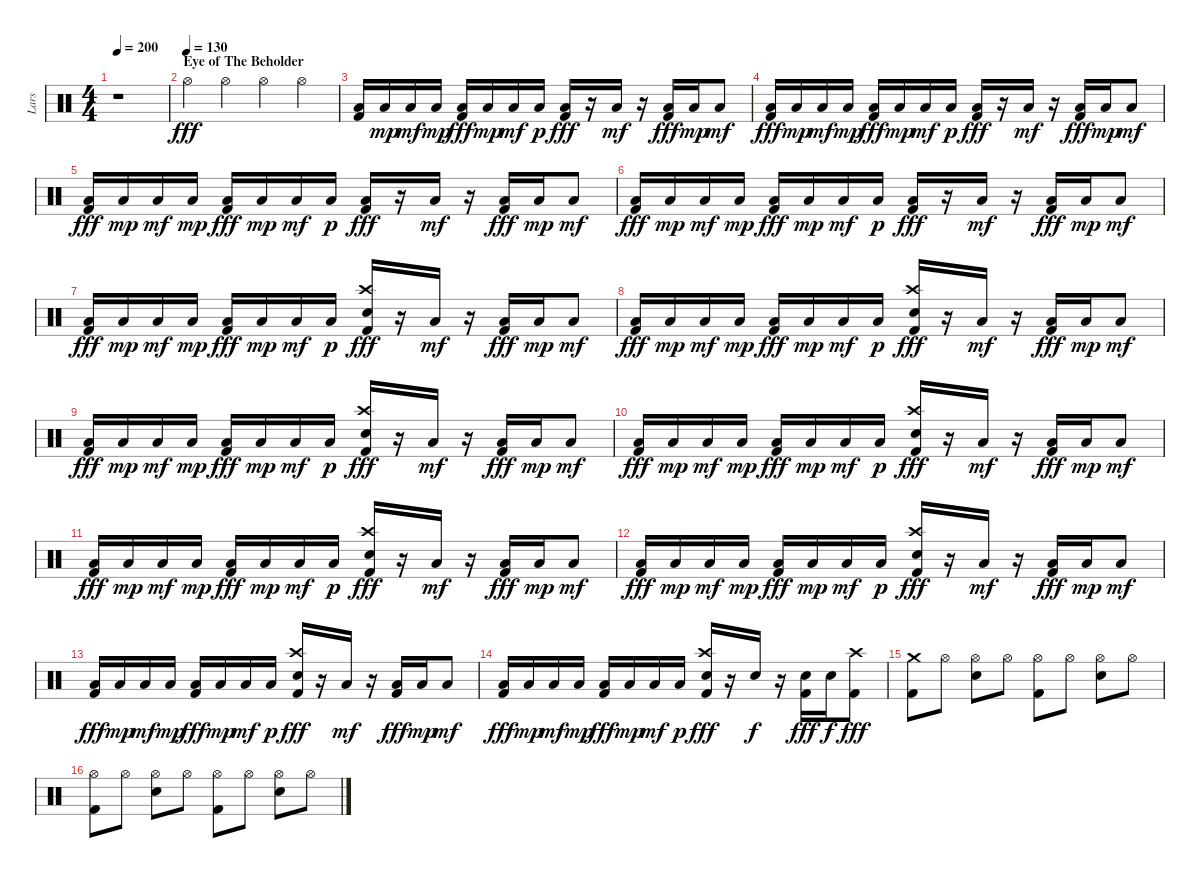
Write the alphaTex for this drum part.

\track ("Lars" "Lars") {instrument percussion}
\staff {score}
\articulation defaults
\ts (4 4)
\tempo 200
\clef neutral
\ks c
r.1{dy fff} |
\section ("" "Eye of The Beholder")
\tempo (130)
"Hi-Hat (open)".4 "Hi-Hat (open)".4 "Hi-Hat (open)".4 "Hi-Hat (open)".4 |
("Low Floor Tom (hit)" "Kick (hit) 2").16 "Low Floor Tom (hit)".16{dy mp} "Low Floor Tom (hit)".16{dy mf} "Low Floor Tom (hit)".16{dy mp} ("Low Floor Tom (hit)" "Kick (hit) 2").16{dy fff} "Low Floor Tom (hit)".16{dy mp} "Low Floor Tom (hit)".16{dy mf} "Low Floor Tom (hit)".16{dy p} ("Low Floor Tom (hit)" "Kick (hit) 2").16{dy fff} r.16 "Low Floor Tom (hit)".16{dy mf} r.16 ("Low Floor Tom (hit)" "Kick (hit) 2").16{dy fff} "Low Floor Tom (hit)".16{dy mp} "Low Floor Tom (hit)".8{dy mf} |
("Low Floor Tom (hit)" "Kick (hit) 2").16{dy fff} "Low Floor Tom (hit)".16{dy mp} "Low Floor Tom (hit)".16{dy mf} "Low Floor Tom (hit)".16{dy mp} ("Low Floor Tom (hit)" "Kick (hit) 2").16{dy fff} "Low Floor Tom (hit)".16{dy mp} "Low Floor Tom (hit)".16{dy mf} "Low Floor Tom (hit)".16{dy p} ("Low Floor Tom (hit)" "Kick (hit) 2").16{dy fff} r.16 "Low Floor Tom (hit)".16{dy mf} r.16 ("Low Floor Tom (hit)" "Kick (hit) 2").16{dy fff} "Low Floor Tom (hit)".16{dy mp} "Low Floor Tom (hit)".8{dy mf} |
("Low Floor Tom (hit)" "Kick (hit) 2").16{dy fff} "Low Floor Tom (hit)".16{dy mp} "Low Floor Tom (hit)".16{dy mf} "Low Floor Tom (hit)".16{dy mp} ("Low Floor Tom (hit)" "Kick (hit) 2").16{dy fff} "Low Floor Tom (hit)".16{dy mp} "Low Floor Tom (hit)".16{dy mf} "Low Floor Tom (hit)".16{dy p} ("Low Floor Tom (hit)" "Kick (hit) 2").16{dy fff} r.16 "Low Floor Tom (hit)".16{dy mf} r.16 ("Low Floor Tom (hit)" "Kick (hit) 2").16{dy fff} "Low Floor Tom (hit)".16{dy mp} "Low Floor Tom (hit)".8{dy mf} |
("Low Floor Tom (hit)" "Kick (hit) 2").16{dy fff} "Low Floor Tom (hit)".16{dy mp} "Low Floor Tom (hit)".16{dy mf} "Low Floor Tom (hit)".16{dy mp} ("Low Floor Tom (hit)" "Kick (hit) 2").16{dy fff} "Low Floor Tom (hit)".16{dy mp} "Low Floor Tom (hit)".16{dy mf} "Low Floor Tom (hit)".16{dy p} ("Low Floor Tom (hit)" "Kick (hit) 2").16{dy fff} r.16 "Low Floor Tom (hit)".16{dy mf} r.16 ("Low Floor Tom (hit)" "Kick (hit) 2").16{dy fff} "Low Floor Tom (hit)".16{dy mp} "Low Floor Tom (hit)".8{dy mf} |
("Low Floor Tom (hit)" "Kick (hit) 2").16{dy fff} "Low Floor Tom (hit)".16{dy mp} "Low Floor Tom (hit)".16{dy mf} "Low Floor Tom (hit)".16{dy mp} ("Low Floor Tom (hit)" "Kick (hit) 2").16{dy fff} "Low Floor Tom (hit)".16{dy mp} "Low Floor Tom (hit)".16{dy mf} "Low Floor Tom (hit)".16{dy p} ("Crash high (hit)" "Snare (hit) 2" "Kick (hit) 2").16{dy fff} r.16 "Low Floor Tom (hit)".16{dy mf} r.16 ("Low Floor Tom (hit)" "Kick (hit) 2").16{dy fff} "Low Floor Tom (hit)".16{dy mp} "Low Floor Tom (hit)".8{dy mf} |
("Low Floor Tom (hit)" "Kick (hit) 2").16{dy fff} "Low Floor Tom (hit)".16{dy mp} "Low Floor Tom (hit)".16{dy mf} "Low Floor Tom (hit)".16{dy mp} ("Low Floor Tom (hit)" "Kick (hit) 2").16{dy fff} "Low Floor Tom (hit)".16{dy mp} "Low Floor Tom (hit)".16{dy mf} "Low Floor Tom (hit)".16{dy p} ("Crash high (hit)" "Snare (hit) 2" "Kick (hit) 2").16{dy fff} r.16 "Low Floor Tom (hit)".16{dy mf} r.16 ("Low Floor Tom (hit)" "Kick (hit) 2").16{dy fff} "Low Floor Tom (hit)".16{dy mp} "Low Floor Tom (hit)".8{dy mf} |
("Low Floor Tom (hit)" "Kick (hit) 2").16{dy fff} "Low Floor Tom (hit)".16{dy mp} "Low Floor Tom (hit)".16{dy mf} "Low Floor Tom (hit)".16{dy mp} ("Low Floor Tom (hit)" "Kick (hit) 2").16{dy fff} "Low Floor Tom (hit)".16{dy mp} "Low Floor Tom (hit)".16{dy mf} "Low Floor Tom (hit)".16{dy p} ("Crash high (hit)" "Snare (hit) 2" "Kick (hit) 2").16{dy fff} r.16 "Low Floor Tom (hit)".16{dy mf} r.16 ("Low Floor Tom (hit)" "Kick (hit) 2").16{dy fff} "Low Floor Tom (hit)".16{dy mp} "Low Floor Tom (hit)".8{dy mf} |
("Low Floor Tom (hit)" "Kick (hit) 2").16{dy fff} "Low Floor Tom (hit)".16{dy mp} "Low Floor Tom (hit)".16{dy mf} "Low Floor Tom (hit)".16{dy mp} ("Low Floor Tom (hit)" "Kick (hit) 2").16{dy fff} "Low Floor Tom (hit)".16{dy mp} "Low Floor Tom (hit)".16{dy mf} "Low Floor Tom (hit)".16{dy p} ("Crash high (hit)" "Snare (hit) 2" "Kick (hit) 2").16{dy fff} r.16 "Low Floor Tom (hit)".16{dy mf} r.16 ("Low Floor Tom (hit)" "Kick (hit) 2").16{dy fff} "Low Floor Tom (hit)".16{dy mp} "Low Floor Tom (hit)".8{dy mf} |
("Low Floor Tom (hit)" "Kick (hit) 2").16{dy fff} "Low Floor Tom (hit)".16{dy mp} "Low Floor Tom (hit)".16{dy mf} "Low Floor Tom (hit)".16{dy mp} ("Low Floor Tom (hit)" "Kick (hit) 2").16{dy fff} "Low Floor Tom (hit)".16{dy mp} "Low Floor Tom (hit)".16{dy mf} "Low Floor Tom (hit)".16{dy p} ("Crash high (hit)" "Snare (hit) 2" "Kick (hit) 2").16{dy fff} r.16 "Low Floor Tom (hit)".16{dy mf} r.16 ("Low Floor Tom (hit)" "Kick (hit) 2").16{dy fff} "Low Floor Tom (hit)".16{dy mp} "Low Floor Tom (hit)".8{dy mf} |
("Low Floor Tom (hit)" "Kick (hit) 2").16{dy fff} "Low Floor Tom (hit)".16{dy mp} "Low Floor Tom (hit)".16{dy mf} "Low Floor Tom (hit)".16{dy mp} ("Low Floor Tom (hit)" "Kick (hit) 2").16{dy fff} "Low Floor Tom (hit)".16{dy mp} "Low Floor Tom (hit)".16{dy mf} "Low Floor Tom (hit)".16{dy p} ("Crash high (hit)" "Snare (hit) 2" "Kick (hit) 2").16{dy fff} r.16 "Low Floor Tom (hit)".16{dy mf} r.16 ("Low Floor Tom (hit)" "Kick (hit) 2").16{dy fff} "Low Floor Tom (hit)".16{dy mp} "Low Floor Tom (hit)".8{dy mf} |
("Low Floor Tom (hit)" "Kick (hit) 2").16{dy fff} "Low Floor Tom (hit)".16{dy mp} "Low Floor Tom (hit)".16{dy mf} "Low Floor Tom (hit)".16{dy mp} ("Low Floor Tom (hit)" "Kick (hit) 2").16{dy fff} "Low Floor Tom (hit)".16{dy mp} "Low Floor Tom (hit)".16{dy mf} "Low Floor Tom (hit)".16{dy p} ("Crash high (hit)" "Snare (hit) 2" "Kick (hit) 2").16{dy fff} r.16 "Low Floor Tom (hit)".16{dy mf} r.16 ("Low Floor Tom (hit)" "Kick (hit) 2").16{dy fff} "Low Floor Tom (hit)".16{dy mp} "Low Floor Tom (hit)".8{dy mf} |
("Low Floor Tom (hit)" "Kick (hit) 2").16{dy fff} "Low Floor Tom (hit)".16{dy mp} "Low Floor Tom (hit)".16{dy mf} "Low Floor Tom (hit)".16{dy mp} ("Low Floor Tom (hit)" "Kick (hit) 2").16{dy fff} "Low Floor Tom (hit)".16{dy mp} "Low Floor Tom (hit)".16{dy mf} "Low Floor Tom (hit)".16{dy p} ("Crash high (hit)" "Snare (hit) 2" "Kick (hit) 2").16{dy fff} r.16 "Snare (hit) 2".16{dy f} r.16 ("Snare (hit) 2" "Kick (hit) 2").16{dy fff} "Snare (hit) 2".16{dy f} ("Crash high (hit)" "Kick (hit) 2").8{dy fff} |
("Crash medium (hit)" "Kick (hit) 2").8 "Hi-Hat (open)".8 ("Hi-Hat (open)" "Snare (hit) 2").8 "Hi-Hat (open)".8 ("Hi-Hat (open)" "Kick (hit) 2").8 "Hi-Hat (open)".8 ("Hi-Hat (open)" "Snare (hit) 2").8 "Hi-Hat (open)".8 |
("Hi-Hat (open)" "Kick (hit) 2").8 "Hi-Hat (open)".8 ("Hi-Hat (open)" "Snare (hit) 2").8 "Hi-Hat (open)".8 ("Hi-Hat (open)" "Kick (hit) 2").8 "Hi-Hat (open)".8 ("Hi-Hat (open)" "Snare (hit) 2").8 "Hi-Hat (open)".8
